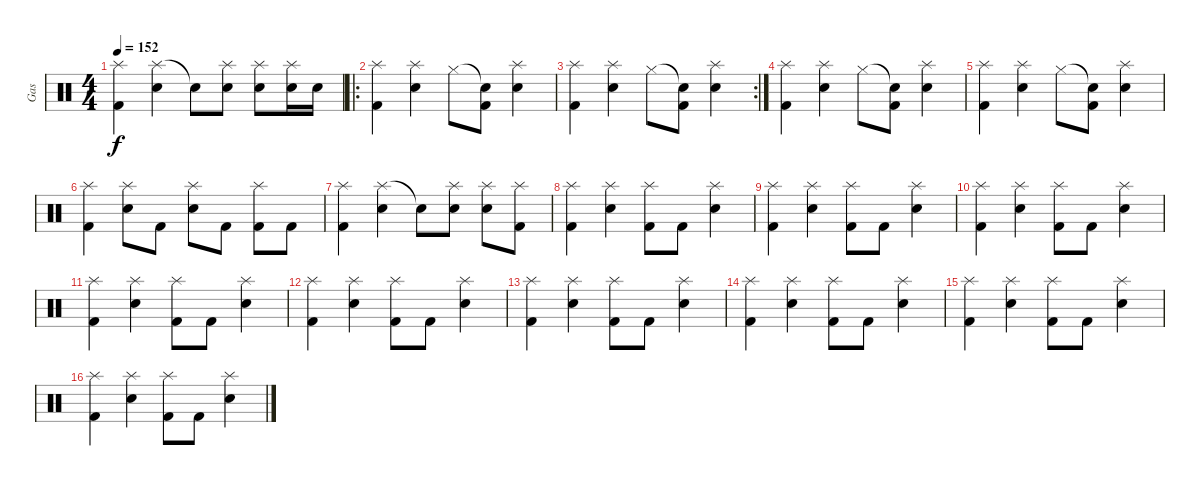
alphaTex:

\track ("Gas" "Gas") {instrument percussion}
\staff {score}
\articulation defaults
\ts (4 4)
\tempo 152
\clef neutral
\ks c
("Splash (hit)" "Kick (hit) 2").4{dy f} ("Splash (hit)" "Electric Snare (hit)").4 "Electric Snare (hit)"{t}.8 ("Splash (hit)" "Electric Snare (hit)").8 ("Splash (hit)" "Electric Snare (hit)").8 ("Splash (hit)" "Electric Snare (hit)").16 "Electric Snare (hit)".16 |
\ro
("Splash (hit)" "Kick (hit) 2").4 ("Splash (hit)" "Electric Snare (hit)").4 "Hi-Hat (closed)".8 ("Snare (hit)"{t} "Kick (hit) 2").8 ("Splash (hit)" "Electric Snare (hit)").4 |
\rc 2
("Splash (hit)" "Kick (hit) 2").4 ("Splash (hit)" "Electric Snare (hit)").4 "Hi-Hat (closed)".8 ("Snare (hit)"{t} "Kick (hit) 2").8 ("Splash (hit)" "Electric Snare (hit)").4 |
("Splash (hit)" "Kick (hit) 2").4 ("Splash (hit)" "Electric Snare (hit)").4 "Hi-Hat (closed)".8 ("Snare (hit)"{t} "Kick (hit) 2").8 ("Splash (hit)" "Electric Snare (hit)").4 |
("Splash (hit)" "Kick (hit) 2").4 ("Splash (hit)" "Electric Snare (hit)").4 "Hi-Hat (closed)".8 ("Snare (hit)"{t} "Kick (hit) 2").8 ("Splash (hit)" "Electric Snare (hit)").4 |
("Splash (hit)" "Kick (hit) 2").4 ("Splash (hit)" "Electric Snare (hit)").8 "Kick (hit) 2".8 ("Splash (hit)" "Electric Snare (hit)").8 "Kick (hit) 2".8 ("Splash (hit)" "Kick (hit) 2").8 "Kick (hit) 2".8 |
("Splash (hit)" "Kick (hit) 2").4 ("Splash (hit)" "Electric Snare (hit)").4 "Electric Snare (hit)"{t}.8 ("Splash (hit)" "Electric Snare (hit)").8 ("Splash (hit)" "Electric Snare (hit)").8 ("Splash (hit)" "Kick (hit) 2").8 |
("Splash (hit)" "Kick (hit) 2").4 ("Splash (hit)" "Electric Snare (hit)").4 ("Splash (hit)" "Kick (hit) 2").8 "Kick (hit) 2".8 ("Splash (hit)" "Electric Snare (hit)").4 |
("Splash (hit)" "Kick (hit) 2").4 ("Splash (hit)" "Electric Snare (hit)").4 ("Splash (hit)" "Kick (hit) 2").8 "Kick (hit) 2".8 ("Splash (hit)" "Electric Snare (hit)").4 |
("Splash (hit)" "Kick (hit) 2").4 ("Splash (hit)" "Electric Snare (hit)").4 ("Splash (hit)" "Kick (hit) 2").8 "Kick (hit) 2".8 ("Splash (hit)" "Electric Snare (hit)").4 |
("Splash (hit)" "Kick (hit) 2").4 ("Splash (hit)" "Electric Snare (hit)").4 ("Splash (hit)" "Kick (hit) 2").8 "Kick (hit) 2".8 ("Splash (hit)" "Electric Snare (hit)").4 |
("Splash (hit)" "Kick (hit) 2").4 ("Splash (hit)" "Electric Snare (hit)").4 ("Splash (hit)" "Kick (hit) 2").8 "Kick (hit) 2".8 ("Splash (hit)" "Electric Snare (hit)").4 |
("Splash (hit)" "Kick (hit) 2").4 ("Splash (hit)" "Electric Snare (hit)").4 ("Splash (hit)" "Kick (hit) 2").8 "Kick (hit) 2".8 ("Splash (hit)" "Electric Snare (hit)").4 |
("Splash (hit)" "Kick (hit) 2").4 ("Splash (hit)" "Electric Snare (hit)").4 ("Splash (hit)" "Kick (hit) 2").8 "Kick (hit) 2".8 ("Splash (hit)" "Electric Snare (hit)").4 |
("Splash (hit)" "Kick (hit) 2").4 ("Splash (hit)" "Electric Snare (hit)").4 ("Splash (hit)" "Kick (hit) 2").8 "Kick (hit) 2".8 ("Splash (hit)" "Electric Snare (hit)").4 |
("Splash (hit)" "Kick (hit) 2").4 ("Splash (hit)" "Electric Snare (hit)").4 ("Splash (hit)" "Kick (hit) 2").8 "Kick (hit) 2".8 ("Splash (hit)" "Electric Snare (hit)").4
